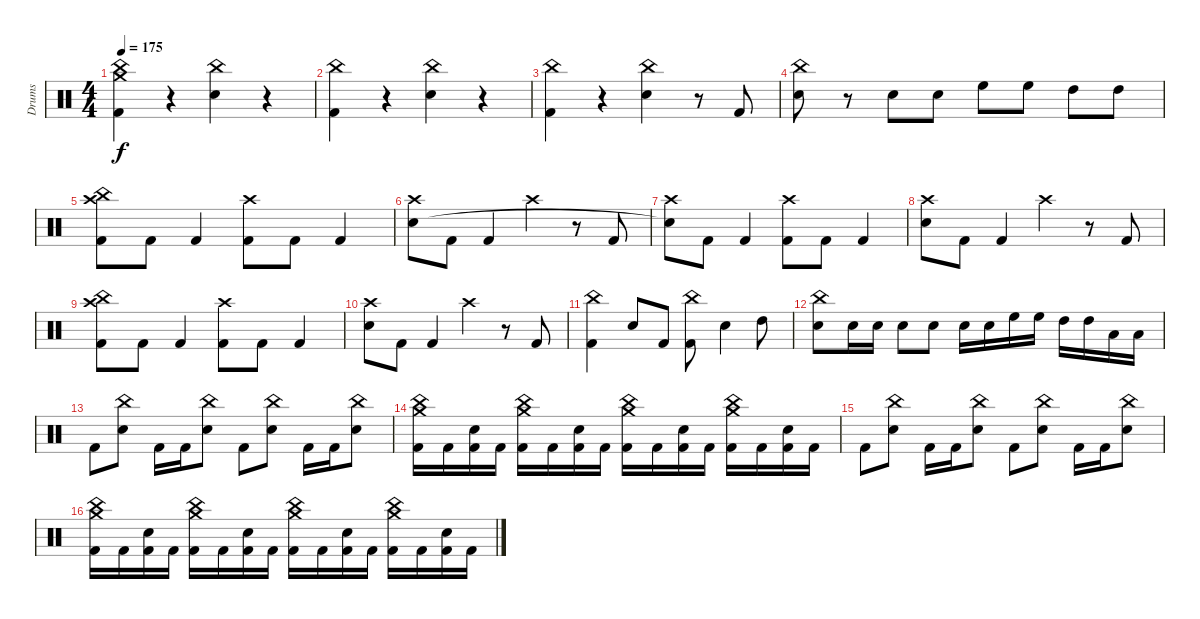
\track ("Drums" "Drums") {instrument percussion}
\staff {score}
\articulation defaults
\ts (4 4)
\tempo 175
\clef neutral
\ks c
("China (hit)" "Crash medium (hit)" "Kick (hit) 2").4{dy f} r.4 ("China (hit)" "Electric Snare (hit)").4 r.4 |
("China (hit)" "Kick (hit) 2").4 r.4 ("China (hit)" "Electric Snare (hit)").4 r.4 |
("China (hit)" "Kick (hit) 2").4 r.4 ("China (hit)" "Electric Snare (hit)").4 r.8 "Kick (hit) 2".8 |
("China (hit)" "Electric Snare (hit)").8 r.8 "Electric Snare (hit)".8 "Electric Snare (hit)".8 "High Floor Tom (hit)".8 "High Floor Tom (hit)".8 "High Tom (hit)".8 "High Tom (hit)".8 |
("Crash high (hit)" "China (hit)" "Kick (hit) 2").8 "Kick (hit) 2".8 "Kick (hit) 2".4 ("Crash high (hit)" "Kick (hit) 2").8 "Kick (hit) 2".8 "Kick (hit) 2".4 |
("Crash high (hit)" "Electric Snare (hit)").8 "Kick (hit) 2".8 "Kick (hit) 2".4 "Crash high (hit)".4 r.8 "Kick (hit) 2".8 |
("Crash high (hit)" "Snare (hit)"{t}).8 "Kick (hit) 2".8 "Kick (hit) 2".4 ("Crash high (hit)" "Kick (hit) 2").8 "Kick (hit) 2".8 "Kick (hit) 2".4 |
("Crash high (hit)" "Electric Snare (hit)").8 "Kick (hit) 2".8 "Kick (hit) 2".4 "Crash high (hit)".4 r.8 "Kick (hit) 2".8 |
("Crash high (hit)" "China (hit)" "Kick (hit) 2").8 "Kick (hit) 2".8 "Kick (hit) 2".4 ("Crash high (hit)" "Kick (hit) 2").8 "Kick (hit) 2".8 "Kick (hit) 2".4 |
("Crash high (hit)" "Electric Snare (hit)").8 "Kick (hit) 2".8 "Kick (hit) 2".4 "Crash high (hit)".4 r.8 "Kick (hit) 2".8 |
("China (hit)" "Kick (hit) 2").4 "Electric Snare (hit)".8 "Kick (hit) 2".8 ("China (hit)" "Kick (hit) 2").8 "Electric Snare (hit)".4 "High Tom (hit)".8 |
("China (hit)" "Electric Snare (hit)").8 "Electric Snare (hit)".16 "Electric Snare (hit)".16 "Electric Snare (hit)".8 "Electric Snare (hit)".8 "Electric Snare (hit)".16 "Electric Snare (hit)".16 "High Floor Tom (hit)".16 "High Floor Tom (hit)".16 "High Tom (hit)".16 "High Tom (hit)".16 "Low Floor Tom (hit)".16 "Low Floor Tom (hit)".16 |
"Kick (hit) 2".8 ("China (hit)" "Electric Snare (hit)").8 "Kick (hit) 2".16 "Kick (hit) 2".16 ("China (hit)" "Electric Snare (hit)").8 "Kick (hit) 2".8 ("China (hit)" "Electric Snare (hit)").8 "Kick (hit) 2".16 "Kick (hit) 2".16 ("China (hit)" "Electric Snare (hit)").8 |
("Crash medium (hit)" "China (hit)" "Kick (hit) 2").16 "Kick (hit) 2".16 ("Electric Snare (hit)" "Kick (hit) 2").16 "Kick (hit) 2".16 ("Crash medium (hit)" "China (hit)" "Kick (hit) 2").16 "Kick (hit) 2".16 ("Electric Snare (hit)" "Kick (hit) 2").16 "Kick (hit) 2".16 ("Crash medium (hit)" "China (hit)" "Kick (hit) 2").16 "Kick (hit) 2".16 ("Electric Snare (hit)" "Kick (hit) 2").16 "Kick (hit) 2".16 ("Crash medium (hit)" "China (hit)" "Kick (hit) 2").16 "Kick (hit) 2".16 ("Electric Snare (hit)" "Kick (hit) 2").16 "Kick (hit) 2".16 |
"Kick (hit) 2".8 ("China (hit)" "Electric Snare (hit)").8 "Kick (hit) 2".16 "Kick (hit) 2".16 ("China (hit)" "Electric Snare (hit)").8 "Kick (hit) 2".8 ("China (hit)" "Electric Snare (hit)").8 "Kick (hit) 2".16 "Kick (hit) 2".16 ("China (hit)" "Electric Snare (hit)").8 |
("Crash medium (hit)" "China (hit)" "Kick (hit) 2").16 "Kick (hit) 2".16 ("Electric Snare (hit)" "Kick (hit) 2").16 "Kick (hit) 2".16 ("Crash medium (hit)" "China (hit)" "Kick (hit) 2").16 "Kick (hit) 2".16 ("Electric Snare (hit)" "Kick (hit) 2").16 "Kick (hit) 2".16 ("Crash medium (hit)" "China (hit)" "Kick (hit) 2").16 "Kick (hit) 2".16 ("Electric Snare (hit)" "Kick (hit) 2").16 "Kick (hit) 2".16 ("Crash medium (hit)" "China (hit)" "Kick (hit) 2").16 "Kick (hit) 2".16 ("Electric Snare (hit)" "Kick (hit) 2").16 "Kick (hit) 2".16
